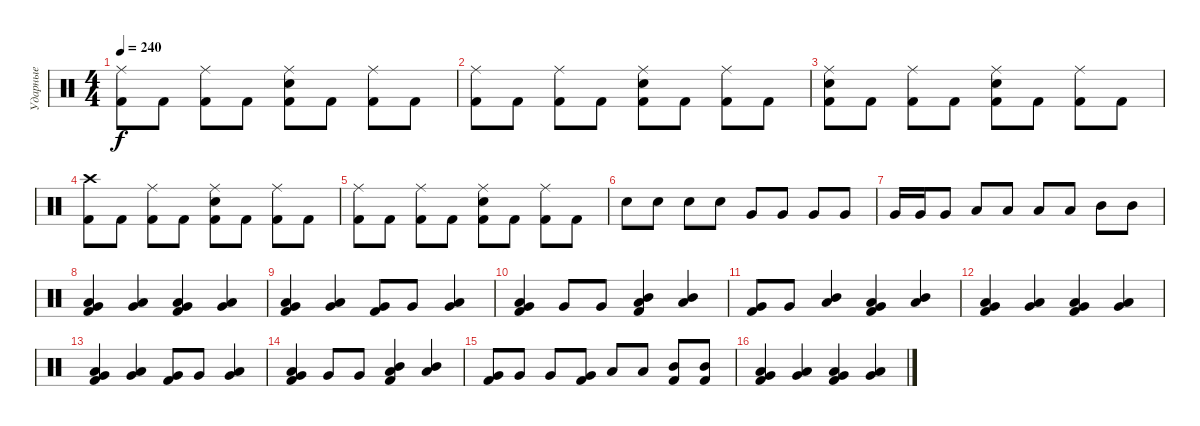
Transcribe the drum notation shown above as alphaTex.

\track ("Ударные" "Ударные") {instrument percussion}
\staff {score}
\articulation defaults
\ts (4 4)
\tempo 240
\clef neutral
\ks c
("Ride (middle)" "Kick (hit) 2").8{dy f} "Kick (hit) 2".8 ("Ride (middle)" "Kick (hit) 2").8 "Kick (hit) 2".8 ("Ride (middle)" "Snare (hit) 2" "Kick (hit) 2").8 "Kick (hit) 2".8 ("Ride (middle)" "Kick (hit) 2").8 "Kick (hit) 2".8 |
("Ride (middle)" "Kick (hit) 2").8 "Kick (hit) 2".8 ("Ride (middle)" "Kick (hit) 2").8 "Kick (hit) 2".8 ("Ride (middle)" "Snare (hit) 2" "Kick (hit) 2").8 "Kick (hit) 2".8 ("Ride (middle)" "Kick (hit) 2").8 "Kick (hit) 2".8 |
("Ride (middle)" "Snare (hit) 2" "Kick (hit) 2").8 "Kick (hit) 2".8 ("Ride (middle)" "Kick (hit) 2").8 "Kick (hit) 2".8 ("Ride (middle)" "Snare (hit) 2" "Kick (hit) 2").8 "Kick (hit) 2".8 ("Ride (middle)" "Kick (hit) 2").8 "Kick (hit) 2".8 |
("Crash high (hit)" "Kick (hit) 2").8 "Kick (hit) 2".8 ("Ride (middle)" "Kick (hit) 2").8 "Kick (hit) 2".8 ("Ride (middle)" "Snare (hit) 2" "Kick (hit) 2").8 "Kick (hit) 2".8 ("Ride (middle)" "Kick (hit) 2").8 "Kick (hit) 2".8 |
("Ride (middle)" "Kick (hit) 2").8 "Kick (hit) 2".8 ("Ride (middle)" "Kick (hit) 2").8 "Kick (hit) 2".8 ("Ride (middle)" "Snare (hit) 2" "Kick (hit) 2").8 "Kick (hit) 2".8 ("Ride (middle)" "Kick (hit) 2").8 "Kick (hit) 2".8 |
"Snare (hit) 2".8 "Snare (hit) 2".8 "Snare (hit) 2".8 "Snare (hit) 2".8 "Very Low Tom (hit)".8 "Very Low Tom (hit)".8 "Very Low Tom (hit)".8 "Very Low Tom (hit)".8 |
"Very Low Tom (hit)".16 "Very Low Tom (hit)".16 "Very Low Tom (hit)".8 "Low Tom (hit)".8 "Low Tom (hit)".8 "Low Tom (hit)".8 "Low Tom (hit)".8 "Mid Tom (hit)".8 "Mid Tom (hit)".8 |
("Low Tom (hit)" "Very Low Tom (hit)" "Kick (hit) 2").4 ("Low Tom (hit)" "Very Low Tom (hit)").4 ("Low Tom (hit)" "Very Low Tom (hit)" "Kick (hit) 2").4 ("Low Tom (hit)" "Very Low Tom (hit)").4 |
("Low Tom (hit)" "Very Low Tom (hit)" "Kick (hit) 2").4 ("Low Tom (hit)" "Very Low Tom (hit)").4 ("Very Low Tom (hit)" "Kick (hit) 2").8 "Very Low Tom (hit)".8 ("Low Tom (hit)" "Very Low Tom (hit)").4 |
("Low Tom (hit)" "Very Low Tom (hit)" "Kick (hit) 2").4 "Very Low Tom (hit)".8 "Very Low Tom (hit)".8 ("Low Tom (hit)" "Mid Tom (hit)" "Kick (hit) 2").4 ("Low Tom (hit)" "Mid Tom (hit)").4 |
("Very Low Tom (hit)" "Kick (hit) 2").8 "Very Low Tom (hit)".8 ("Low Tom (hit)" "Mid Tom (hit)").4 ("Low Tom (hit)" "Very Low Tom (hit)" "Kick (hit) 2").4 ("Low Tom (hit)" "Mid Tom (hit)").4 |
("Low Tom (hit)" "Very Low Tom (hit)" "Kick (hit) 2").4 ("Low Tom (hit)" "Very Low Tom (hit)").4 ("Low Tom (hit)" "Very Low Tom (hit)" "Kick (hit) 2").4 ("Low Tom (hit)" "Very Low Tom (hit)").4 |
("Low Tom (hit)" "Very Low Tom (hit)" "Kick (hit) 2").4 ("Low Tom (hit)" "Very Low Tom (hit)").4 ("Very Low Tom (hit)" "Kick (hit) 2").8 "Very Low Tom (hit)".8 ("Low Tom (hit)" "Very Low Tom (hit)").4 |
("Low Tom (hit)" "Very Low Tom (hit)" "Kick (hit) 2").4 "Very Low Tom (hit)".8 "Very Low Tom (hit)".8 ("Low Tom (hit)" "Mid Tom (hit)" "Kick (hit) 2").4 ("Low Tom (hit)" "Mid Tom (hit)").4 |
("Very Low Tom (hit)" "Kick (hit) 2").8 "Very Low Tom (hit)".8 "Very Low Tom (hit)".8 ("Very Low Tom (hit)" "Kick (hit) 2").8 "Low Tom (hit)".8 "Low Tom (hit)".8 ("Mid Tom (hit)" "Kick (hit) 2").8 ("Mid Tom (hit)" "Kick (hit) 2").8 |
("Low Tom (hit)" "Very Low Tom (hit)" "Kick (hit) 2").4 ("Low Tom (hit)" "Very Low Tom (hit)").4 ("Low Tom (hit)" "Very Low Tom (hit)" "Kick (hit) 2").4 ("Low Tom (hit)" "Very Low Tom (hit)").4
